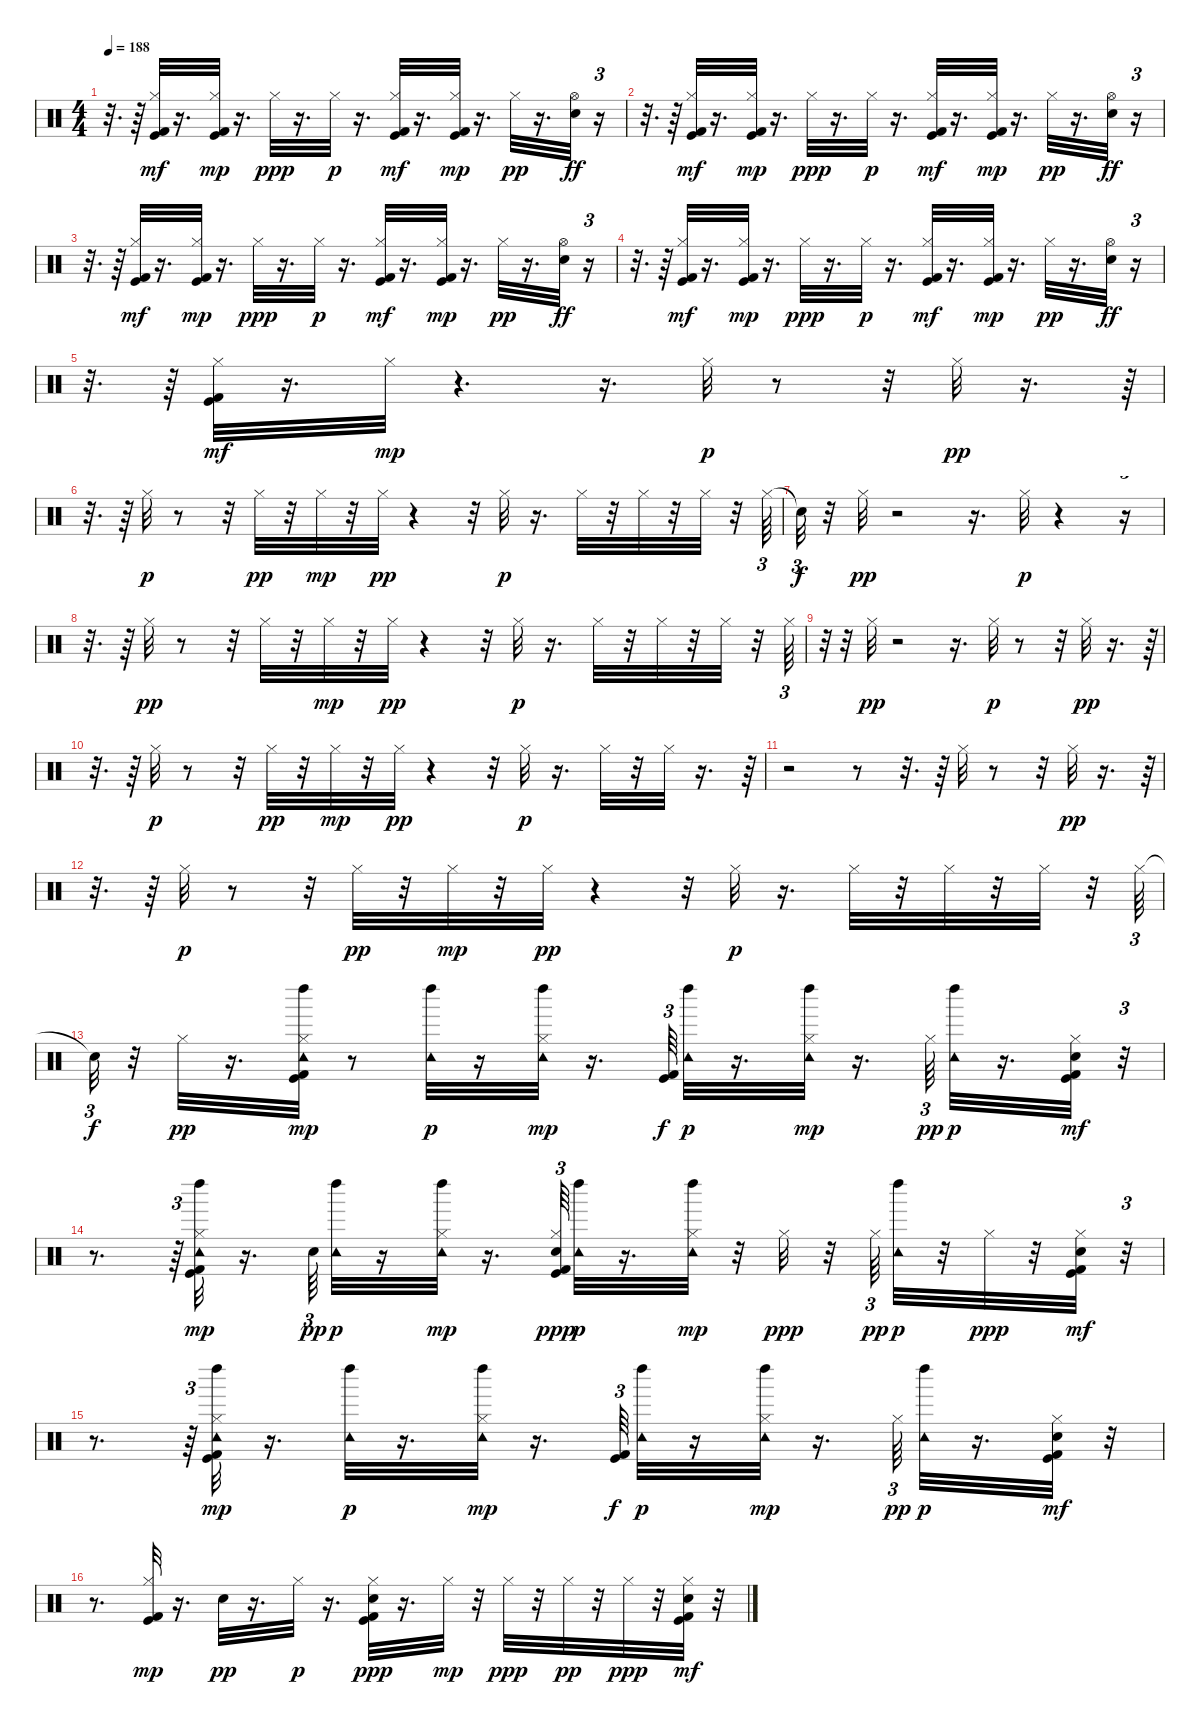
\track "" {instrument percussion}
\staff {score}
\articulation defaults
\ts (4 4)
\tempo 188
\clef neutral
\ks c
r.32{d dy ff} r.64 ("Kick (hit) 2" "Hi-Hat (closed)" "Kick (hit)").32{dy mf} r.16{d} ("Kick (hit) 2" "Hi-Hat (closed)" "Kick (hit)").32{dy mp} r.16{d} "Hi-Hat (closed)".32{dy ppp} r.16{d} "Hi-Hat (closed)".32{dy p} r.16{d} ("Kick (hit) 2" "Hi-Hat (closed)" "Kick (hit)").32{dy mf} r.16{d} ("Kick (hit) 2" "Hi-Hat (closed)" "Kick (hit)").32{dy mp} r.16{d} "Hi-Hat (closed)".32{dy pp} r.16{d} ("Hi-Hat (open)" "Electric Snare (hit)").32{dy ff} r.16{tu (3 2)} |
r.32{d} r.64 ("Kick (hit) 2" "Hi-Hat (closed)" "Kick (hit)").32{dy mf} r.16{d} ("Kick (hit) 2" "Hi-Hat (closed)" "Kick (hit)").32{dy mp} r.16{d} "Hi-Hat (closed)".32{dy ppp} r.16{d} "Hi-Hat (closed)".32{dy p} r.16{d} ("Kick (hit) 2" "Hi-Hat (closed)" "Kick (hit)").32{dy mf} r.16{d} ("Kick (hit) 2" "Hi-Hat (closed)" "Kick (hit)").32{dy mp} r.16{d} "Hi-Hat (closed)".32{dy pp} r.16{d} ("Hi-Hat (open)" "Electric Snare (hit)").32{dy ff} r.16{tu (3 2)} |
r.32{d} r.64 ("Kick (hit) 2" "Hi-Hat (closed)" "Kick (hit)").32{dy mf} r.16{d} ("Kick (hit) 2" "Hi-Hat (closed)" "Kick (hit)").32{dy mp} r.16{d} "Hi-Hat (closed)".32{dy ppp} r.16{d} "Hi-Hat (closed)".32{dy p} r.16{d} ("Kick (hit) 2" "Hi-Hat (closed)" "Kick (hit)").32{dy mf} r.16{d} ("Kick (hit) 2" "Hi-Hat (closed)" "Kick (hit)").32{dy mp} r.16{d} "Hi-Hat (closed)".32{dy pp} r.16{d} ("Hi-Hat (open)" "Electric Snare (hit)").32{dy ff} r.16{tu (3 2)} |
r.32{d} r.64 ("Kick (hit) 2" "Hi-Hat (closed)" "Kick (hit)").32{dy mf} r.16{d} ("Kick (hit) 2" "Hi-Hat (closed)" "Kick (hit)").32{dy mp} r.16{d} "Hi-Hat (closed)".32{dy ppp} r.16{d} "Hi-Hat (closed)".32{dy p} r.16{d} ("Kick (hit) 2" "Hi-Hat (closed)" "Kick (hit)").32{dy mf} r.16{d} ("Kick (hit) 2" "Hi-Hat (closed)" "Kick (hit)").32{dy mp} r.16{d} "Hi-Hat (closed)".32{dy pp} r.16{d} ("Hi-Hat (open)" "Electric Snare (hit)").32{dy ff} r.16{tu (3 2)} |
r.32{d} r.64 ("Kick (hit) 2" "Hi-Hat (closed)" "Kick (hit)").32{dy mf} r.16{d} "Hi-Hat (closed)".32{dy mp} r.4{d} r.16{d} "Hi-Hat (closed)".32{dy p} r.8 r.32 "Hi-Hat (closed)".32{dy pp} r.16{d} r.64{tu (3 2)} |
r.32{d} r.64 "Hi-Hat (closed)".32{dy p} r.8 r.32 "Hi-Hat (closed)".32{dy pp} r.32 "Hi-Hat (closed)".32{dy mp} r.32 "Hi-Hat (closed)".32{dy pp} r.4 r.32 "Hi-Hat (closed)".32{dy p} r.16{d} "Hi-Hat (closed)".32 r.32 "Hi-Hat (closed)".32 r.32 "Hi-Hat (closed)".32 r.32 "Hi-Hat (closed)".64{tu (3 2)} |
"Snare (hit)"{t}.32{tu (3 2) dy f} r.32 "Hi-Hat (closed)".32{dy pp} r.2 r.16{d} "Hi-Hat (closed)".32{dy p} r.4 r.16{tu (3 2)} |
r.32{d} r.64 "Hi-Hat (closed)".32{dy pp} r.8 r.32 "Hi-Hat (closed)".32 r.32 "Hi-Hat (closed)".32{dy mp} r.32 "Hi-Hat (closed)".32{dy pp} r.4 r.32 "Hi-Hat (closed)".32{dy p} r.16{d} "Hi-Hat (closed)".32 r.32 "Hi-Hat (closed)".32 r.32 "Hi-Hat (closed)".32 r.32 "Hi-Hat (closed)".64{tu (3 2)} |
r.32{tu (3 2)} r.32 "Hi-Hat (closed)".32{dy pp} r.2 r.16{d} "Hi-Hat (closed)".32{dy p} r.8 r.32 "Hi-Hat (closed)".32{dy pp} r.16{d} r.64{tu (3 2)} |
r.32{d} r.64 "Hi-Hat (closed)".32{dy p} r.8 r.32 "Hi-Hat (closed)".32{dy pp} r.32 "Hi-Hat (closed)".32{dy mp} r.32 "Hi-Hat (closed)".32{dy pp} r.4 r.32 "Hi-Hat (closed)".32{dy p} r.16{d} "Hi-Hat (closed)".32 r.32 "Hi-Hat (closed)".32 r.16{d} r.64{tu (3 2)} |
r.2 r.8 r.32{d} r.64 "Hi-Hat (closed)".32 r.8 r.32 "Hi-Hat (closed)".32{dy pp} r.16{d} r.64{tu (3 2)} |
r.32{d} r.64 "Hi-Hat (closed)".32{dy p} r.8 r.32 "Hi-Hat (closed)".32{dy pp} r.32 "Hi-Hat (closed)".32{dy mp} r.32 "Hi-Hat (closed)".32{dy pp} r.4 r.32 "Hi-Hat (closed)".32{dy p} r.16{d} "Hi-Hat (closed)".32 r.32 "Hi-Hat (closed)".32 r.32 "Hi-Hat (closed)".32 r.32 "Hi-Hat (closed)".64{tu (3 2)} |
"Snare (hit)"{t}.32{tu (3 2) dy f} r.32 "Hi-Hat (closed)".32{dy pp} r.16{d} ("Kick (hit) 2" "Hi-Hat (closed)" "Tambourine (hit)" "Left Maraca (hit)" "Kick (hit)").32{dy mp} r.8 ("Tambourine (hit)" "Left Maraca (hit)").32{dy p} r.16 ("Hi-Hat (closed)" "Tambourine (hit)" "Left Maraca (hit)").32{dy mp} r.16{d} ("Kick (hit) 2" "Kick (hit)").64{tu (3 2) dy f} ("Tambourine (hit)" "Left Maraca (hit)").32{dy p} r.16{d} ("Hi-Hat (closed)" "Tambourine (hit)" "Left Maraca (hit)").32{dy mp} r.16{d} "Hi-Hat (closed)".64{tu (3 2) dy pp} ("Tambourine (hit)" "Left Maraca (hit)").32{dy p} r.16{d} ("Kick (hit) 2" "Hi-Hat (closed)" "Electric Snare (hit)" "Kick (hit)").32{dy mf} r.32{tu (3 2)} |
r.8{d} r.64{tu (3 2)} ("Kick (hit) 2" "Hi-Hat (closed)" "Tambourine (hit)" "Left Maraca (hit)" "Kick (hit)").32{dy mp} r.16{d} "Electric Snare (hit)".64{tu (3 2) dy pp} ("Tambourine (hit)" "Left Maraca (hit)").32{dy p} r.16 ("Hi-Hat (closed)" "Tambourine (hit)" "Left Maraca (hit)").32{dy mp} r.16{d} ("Kick (hit) 2" "Electric Snare (hit)" "Hi-Hat (closed)" "Kick (hit)").64{tu (3 2) dy ppp} ("Tambourine (hit)" "Left Maraca (hit)").32{dy p} r.16{d} ("Hi-Hat (closed)" "Tambourine (hit)" "Left Maraca (hit)").32{dy mp} r.32 "Hi-Hat (closed)".32{dy ppp} r.32 "Hi-Hat (closed)".64{tu (3 2) dy pp} ("Tambourine (hit)" "Left Maraca (hit)").32{dy p} r.32 "Hi-Hat (closed)".32{dy ppp} r.32 ("Kick (hit) 2" "Hi-Hat (closed)" "Electric Snare (hit)" "Kick (hit)").32{dy mf} r.32{tu (3 2)} |
r.8{d} r.64{tu (3 2)} ("Kick (hit) 2" "Hi-Hat (closed)" "Tambourine (hit)" "Left Maraca (hit)" "Kick (hit)").32{dy mp} r.16{d} ("Tambourine (hit)" "Left Maraca (hit)").32{dy p} r.16{d} ("Hi-Hat (closed)" "Tambourine (hit)" "Left Maraca (hit)").32{dy mp} r.16{d} ("Kick (hit) 2" "Kick (hit)").64{tu (3 2) dy f} ("Tambourine (hit)" "Left Maraca (hit)").32{dy p} r.16 ("Hi-Hat (closed)" "Tambourine (hit)" "Left Maraca (hit)").32{dy mp} r.16{d} "Hi-Hat (closed)".64{tu (3 2) dy pp} ("Tambourine (hit)" "Left Maraca (hit)").32{dy p} r.16{d} ("Kick (hit) 2" "Hi-Hat (closed)" "Electric Snare (hit)" "Kick (hit)").32{dy mf} r.32 |
r.8{d} ("Kick (hit) 2" "Hi-Hat (closed)" "Kick (hit)").32{dy mp} r.16{d} "Electric Snare (hit)".32{dy pp} r.16{d} "Hi-Hat (closed)".32{dy p} r.16{d} ("Kick (hit) 2" "Electric Snare (hit)" "Hi-Hat (closed)" "Kick (hit)").32{dy ppp} r.16{d} "Hi-Hat (closed)".32{dy mp} r.32 "Hi-Hat (closed)".32{dy ppp} r.32 "Hi-Hat (closed)".32{dy pp} r.32 "Hi-Hat (closed)".32{dy ppp} r.32 ("Kick (hit) 2" "Hi-Hat (closed)" "Electric Snare (hit)" "Kick (hit)").32{dy mf} r.32
